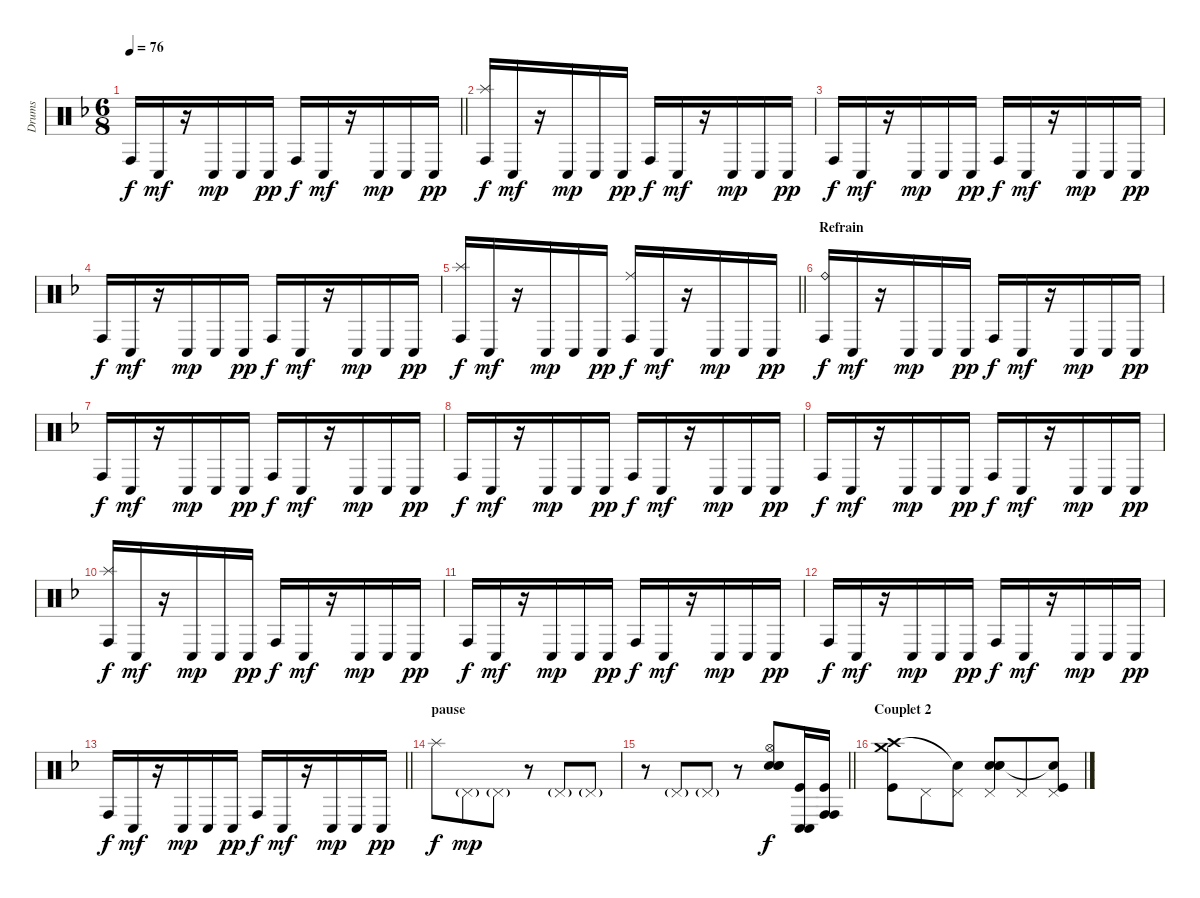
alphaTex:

\track ("Drums" "Drums") {instrument percussion}
\staff {score}
\articulation defaults
\ts (6 8)
\tempo 76
\clef neutral
\barLineRight lightlight
\ks f "Conga high (hit)".16{dy f} "Conga low (hit)".16{dy mf}
r.16 "Conga low (hit)".16{dy mp} "Conga low (hit)".16 "Conga low (hit)".16{dy pp} "Conga high (hit)".16{dy f} "Conga low (hit)".16{dy mf} r.16 "Conga low (hit)".16{dy mp} "Conga low (hit)".16 "Conga low (hit)".16{dy pp} |
("Splash (hit)" "Conga high (hit)").16{dy f} "Conga low (hit)".16{dy mf} r.16 "Conga low (hit)".16{dy mp} "Conga low (hit)".16 "Conga low (hit)".16{dy pp} "Conga high (hit)".16{dy f} "Conga low (hit)".16{dy mf} r.16 "Conga low (hit)".16{dy mp} "Conga low (hit)".16 "Conga low (hit)".16{dy pp} |
"Conga high (hit)".16{dy f} "Conga low (hit)".16{dy mf} r.16 "Conga low (hit)".16{dy mp} "Conga low (hit)".16 "Conga low (hit)".16{dy pp} "Conga high (hit)".16{dy f} "Conga low (hit)".16{dy mf} r.16 "Conga low (hit)".16{dy mp} "Conga low (hit)".16 "Conga low (hit)".16{dy pp} |
"Conga high (hit)".16{dy f} "Conga low (hit)".16{dy mf} r.16 "Conga low (hit)".16{dy mp} "Conga low (hit)".16 "Conga low (hit)".16{dy pp} "Conga high (hit)".16{dy f} "Conga low (hit)".16{dy mf} r.16 "Conga low (hit)".16{dy mp} "Conga low (hit)".16 "Conga low (hit)".16{dy pp} |
\barLineRight lightlight
("Splash (hit)" "Conga high (hit)").16{dy f} "Conga low (hit)".16{dy mf} r.16 "Conga low (hit)".16{dy mp} "Conga low (hit)".16 "Conga low (hit)".16{dy pp} ("Ride (middle)" "Conga high (hit)").16{dy f} "Conga low (hit)".16{dy mf} r.16 "Conga low (hit)".16{dy mp} "Conga low (hit)".16 "Conga low (hit)".16{dy pp} |
\section ("" "Refrain")
("Ride (bell)" "Conga high (hit)").16{dy f} "Conga low (hit)".16{dy mf} r.16 "Conga low (hit)".16{dy mp} "Conga low (hit)".16 "Conga low (hit)".16{dy pp} "Conga high (hit)".16{dy f} "Conga low (hit)".16{dy mf} r.16 "Conga low (hit)".16{dy mp} "Conga low (hit)".16 "Conga low (hit)".16{dy pp} |
"Conga high (hit)".16{dy f} "Conga low (hit)".16{dy mf} r.16 "Conga low (hit)".16{dy mp} "Conga low (hit)".16 "Conga low (hit)".16{dy pp} "Conga high (hit)".16{dy f} "Conga low (hit)".16{dy mf} r.16 "Conga low (hit)".16{dy mp} "Conga low (hit)".16 "Conga low (hit)".16{dy pp} |
"Conga high (hit)".16{dy f} "Conga low (hit)".16{dy mf} r.16 "Conga low (hit)".16{dy mp} "Conga low (hit)".16 "Conga low (hit)".16{dy pp} "Conga high (hit)".16{dy f} "Conga low (hit)".16{dy mf} r.16 "Conga low (hit)".16{dy mp} "Conga low (hit)".16 "Conga low (hit)".16{dy pp} |
"Conga high (hit)".16{dy f} "Conga low (hit)".16{dy mf} r.16 "Conga low (hit)".16{dy mp} "Conga low (hit)".16 "Conga low (hit)".16{dy pp} "Conga high (hit)".16{dy f} "Conga low (hit)".16{dy mf} r.16 "Conga low (hit)".16{dy mp} "Conga low (hit)".16 "Conga low (hit)".16{dy pp} |
("Splash (hit)" "Conga high (hit)").16{dy f} "Conga low (hit)".16{dy mf} r.16 "Conga low (hit)".16{dy mp} "Conga low (hit)".16 "Conga low (hit)".16{dy pp} "Conga high (hit)".16{dy f} "Conga low (hit)".16{dy mf} r.16 "Conga low (hit)".16{dy mp} "Conga low (hit)".16 "Conga low (hit)".16{dy pp} |
"Conga high (hit)".16{dy f} "Conga low (hit)".16{dy mf} r.16 "Conga low (hit)".16{dy mp} "Conga low (hit)".16 "Conga low (hit)".16{dy pp} "Conga high (hit)".16{dy f} "Conga low (hit)".16{dy mf} r.16 "Conga low (hit)".16{dy mp} "Conga low (hit)".16 "Conga low (hit)".16{dy pp} |
"Conga high (hit)".16{dy f} "Conga low (hit)".16{dy mf} r.16 "Conga low (hit)".16{dy mp} "Conga low (hit)".16 "Conga low (hit)".16{dy pp} "Conga high (hit)".16{dy f} "Conga low (hit)".16{dy mf} r.16 "Conga low (hit)".16{dy mp} "Conga low (hit)".16 "Conga low (hit)".16{dy pp} |
\barLineRight lightlight "Conga high (hit)".16{dy f} "Conga low (hit)".16{dy mf}
r.16 "Conga low (hit)".16{dy mp} "Conga low (hit)".16 "Conga low (hit)".16{dy pp} "Conga high (hit)".16{dy f} "Conga low (hit)".16{dy mf} r.16 "Conga low (hit)".16{dy mp} "Conga low (hit)".16 "Conga low (hit)".16{dy pp} |
\section ("" "pause")
"Splash (hit)".8{dy f} "Pedal Hi-Hat (hit)"{g}.8{dy mp} "Pedal Hi-Hat (hit)"{g}.8 r.8 "Pedal Hi-Hat (hit)"{g}.8 "Pedal Hi-Hat (hit)"{g}.8 |
\barLineRight lightlight
r.8 "Pedal Hi-Hat (hit)"{g}.8 "Pedal Hi-Hat (hit)"{g}.8 r.8 ("Hi-Hat (open)" "Metronome (bell)" "Electric Snare (hit)" "Snare (hit) 2").8{dy f} ("Conga low (hit)" "Conga low (hit)" "Kick (hit)").16 ("Conga high (hit)" "Conga high (hit)" "Kick (hit)").16 |
\section ("" "Couplet 2")
("Crash medium (hit)" "Crash high (hit)" "Kick (hit)").8 "Pedal Hi-Hat (hit)".8 ("Pedal Hi-Hat (hit)" "Snare (hit)"{t}).8 ("Pedal Hi-Hat (hit)" "Metronome (bell)" "Electric Snare (hit)" "Snare (hit) 2").8 "Pedal Hi-Hat (hit)".8 ("Pedal Hi-Hat (hit)" "Snare (hit)"{t} "Kick (hit)").8
